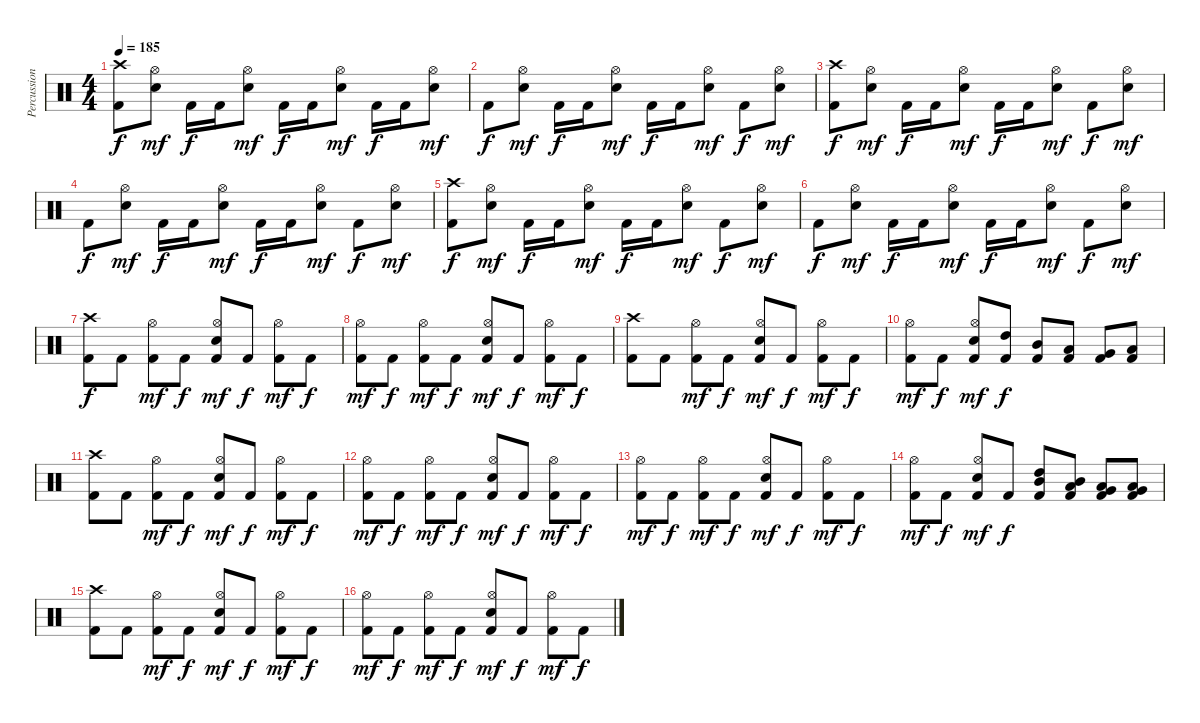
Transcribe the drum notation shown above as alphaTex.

\track ("Percussion" "Percussion") {instrument percussion}
\staff {score}
\articulation defaults
\ts (4 4)
\section ("" "")
\tempo 185
\clef neutral
\ks c
("Crash high (hit)" "Kick (hit) 2").8{dy f} ("Hi-Hat (open)" "Electric Snare (hit)").8{dy mf} "Kick (hit) 2".16{dy f} "Kick (hit) 2".16 ("Hi-Hat (open)" "Electric Snare (hit)").8{dy mf} "Kick (hit) 2".16{dy f} "Kick (hit) 2".16 ("Hi-Hat (open)" "Electric Snare (hit)").8{dy mf} "Kick (hit) 2".16{dy f} "Kick (hit) 2".16 ("Hi-Hat (open)" "Electric Snare (hit)").8{dy mf} |
"Kick (hit) 2".8{dy f} ("Hi-Hat (open)" "Electric Snare (hit)").8{dy mf} "Kick (hit) 2".16{dy f} "Kick (hit) 2".16 ("Hi-Hat (open)" "Electric Snare (hit)").8{dy mf} "Kick (hit) 2".16{dy f} "Kick (hit) 2".16 ("Hi-Hat (open)" "Electric Snare (hit)").8{dy mf} "Kick (hit) 2".8{dy f} ("Hi-Hat (open)" "Electric Snare (hit)").8{dy mf} |
("Crash high (hit)" "Kick (hit) 2").8{dy f} ("Hi-Hat (open)" "Electric Snare (hit)").8{dy mf} "Kick (hit) 2".16{dy f} "Kick (hit) 2".16 ("Hi-Hat (open)" "Electric Snare (hit)").8{dy mf} "Kick (hit) 2".16{dy f} "Kick (hit) 2".16 ("Hi-Hat (open)" "Electric Snare (hit)").8{dy mf} "Kick (hit) 2".8{dy f} ("Hi-Hat (open)" "Electric Snare (hit)").8{dy mf} |
"Kick (hit) 2".8{dy f} ("Hi-Hat (open)" "Electric Snare (hit)").8{dy mf} "Kick (hit) 2".16{dy f} "Kick (hit) 2".16 ("Hi-Hat (open)" "Electric Snare (hit)").8{dy mf} "Kick (hit) 2".16{dy f} "Kick (hit) 2".16 ("Hi-Hat (open)" "Electric Snare (hit)").8{dy mf} "Kick (hit) 2".8{dy f} ("Hi-Hat (open)" "Electric Snare (hit)").8{dy mf} |
("Crash high (hit)" "Kick (hit) 2").8{dy f} ("Hi-Hat (open)" "Electric Snare (hit)").8{dy mf} "Kick (hit) 2".16{dy f} "Kick (hit) 2".16 ("Hi-Hat (open)" "Electric Snare (hit)").8{dy mf} "Kick (hit) 2".16{dy f} "Kick (hit) 2".16 ("Hi-Hat (open)" "Electric Snare (hit)").8{dy mf} "Kick (hit) 2".8{dy f} ("Hi-Hat (open)" "Electric Snare (hit)").8{dy mf} |
"Kick (hit) 2".8{dy f} ("Hi-Hat (open)" "Electric Snare (hit)").8{dy mf} "Kick (hit) 2".16{dy f} "Kick (hit) 2".16 ("Hi-Hat (open)" "Electric Snare (hit)").8{dy mf} "Kick (hit) 2".16{dy f} "Kick (hit) 2".16 ("Hi-Hat (open)" "Electric Snare (hit)").8{dy mf} "Kick (hit) 2".8{dy f} ("Hi-Hat (open)" "Electric Snare (hit)").8{dy mf} |
("Crash high (hit)" "Kick (hit) 2").8{dy f} "Kick (hit) 2".8 ("Hi-Hat (open)" "Kick (hit) 2").8{dy mf} "Kick (hit) 2".8{dy f} ("Hi-Hat (open)" "Electric Snare (hit)" "Kick (hit) 2").8{dy mf} "Kick (hit) 2".8{dy f} ("Hi-Hat (open)" "Kick (hit) 2").8{dy mf} "Kick (hit) 2".8{dy f} |
("Hi-Hat (open)" "Kick (hit) 2").8{dy mf} "Kick (hit) 2".8{dy f} ("Hi-Hat (open)" "Kick (hit) 2").8{dy mf} "Kick (hit) 2".8{dy f} ("Hi-Hat (open)" "Electric Snare (hit)" "Kick (hit) 2").8{dy mf} "Kick (hit) 2".8{dy f} ("Hi-Hat (open)" "Kick (hit) 2").8{dy mf} "Kick (hit) 2".8{dy f} |
("Crash high (hit)" "Kick (hit) 2").8 "Kick (hit) 2".8 ("Hi-Hat (open)" "Kick (hit) 2").8{dy mf} "Kick (hit) 2".8{dy f} ("Hi-Hat (open)" "Electric Snare (hit)" "Kick (hit) 2").8{dy mf} "Kick (hit) 2".8{dy f} ("Hi-Hat (open)" "Kick (hit) 2").8{dy mf} "Kick (hit) 2".8{dy f} |
("Hi-Hat (open)" "Kick (hit) 2").8{dy mf} "Kick (hit) 2".8{dy f} ("Hi-Hat (open)" "Electric Snare (hit)" "Kick (hit) 2").8{dy mf} ("High Tom (hit)" "Kick (hit) 2").8{dy f} ("Mid Tom (hit)" "Kick (hit) 2").8 ("Low Tom (hit)" "Kick (hit) 2").8 ("Very Low Tom (hit)" "Kick (hit) 2").8 ("Low Floor Tom (hit)" "Kick (hit) 2").8 |
\section ("" "")
("Crash high (hit)" "Kick (hit) 2").8 "Kick (hit) 2".8 ("Hi-Hat (open)" "Kick (hit) 2").8{dy mf} "Kick (hit) 2".8{dy f} ("Hi-Hat (open)" "Electric Snare (hit)" "Kick (hit) 2").8{dy mf} "Kick (hit) 2".8{dy f} ("Hi-Hat (open)" "Kick (hit) 2").8{dy mf} "Kick (hit) 2".8{dy f} |
("Hi-Hat (open)" "Kick (hit) 2").8{dy mf} "Kick (hit) 2".8{dy f} ("Hi-Hat (open)" "Kick (hit) 2").8{dy mf} "Kick (hit) 2".8{dy f} ("Hi-Hat (open)" "Electric Snare (hit)" "Kick (hit) 2").8{dy mf} "Kick (hit) 2".8{dy f} ("Hi-Hat (open)" "Kick (hit) 2").8{dy mf} "Kick (hit) 2".8{dy f} |
("Hi-Hat (open)" "Kick (hit) 2").8{dy mf} "Kick (hit) 2".8{dy f} ("Hi-Hat (open)" "Kick (hit) 2").8{dy mf} "Kick (hit) 2".8{dy f} ("Hi-Hat (open)" "Electric Snare (hit)" "Kick (hit) 2").8{dy mf} "Kick (hit) 2".8{dy f} ("Hi-Hat (open)" "Kick (hit) 2").8{dy mf} "Kick (hit) 2".8{dy f} |
("Hi-Hat (open)" "Kick (hit) 2").8{dy mf} "Kick (hit) 2".8{dy f} ("Hi-Hat (open)" "Electric Snare (hit)" "Kick (hit) 2").8{dy mf} "Kick (hit) 2".8{dy f} ("High Tom (hit)" "Mid Tom (hit)" "Kick (hit) 2").8 ("Mid Tom (hit)" "Low Tom (hit)" "Kick (hit) 2").8 ("Low Tom (hit)" "Very Low Tom (hit)" "Kick (hit) 2").8 ("Very Low Tom (hit)" "Low Floor Tom (hit)" "Kick (hit) 2").8 |
("Crash high (hit)" "Kick (hit) 2").8 "Kick (hit) 2".8 ("Hi-Hat (open)" "Kick (hit) 2").8{dy mf} "Kick (hit) 2".8{dy f} ("Hi-Hat (open)" "Electric Snare (hit)" "Kick (hit) 2").8{dy mf} "Kick (hit) 2".8{dy f} ("Hi-Hat (open)" "Kick (hit) 2").8{dy mf} "Kick (hit) 2".8{dy f} |
("Hi-Hat (open)" "Kick (hit) 2").8{dy mf} "Kick (hit) 2".8{dy f} ("Hi-Hat (open)" "Kick (hit) 2").8{dy mf} "Kick (hit) 2".8{dy f} ("Hi-Hat (open)" "Electric Snare (hit)" "Kick (hit) 2").8{dy mf} "Kick (hit) 2".8{dy f} ("Hi-Hat (open)" "Kick (hit) 2").8{dy mf} "Kick (hit) 2".8{dy f}
